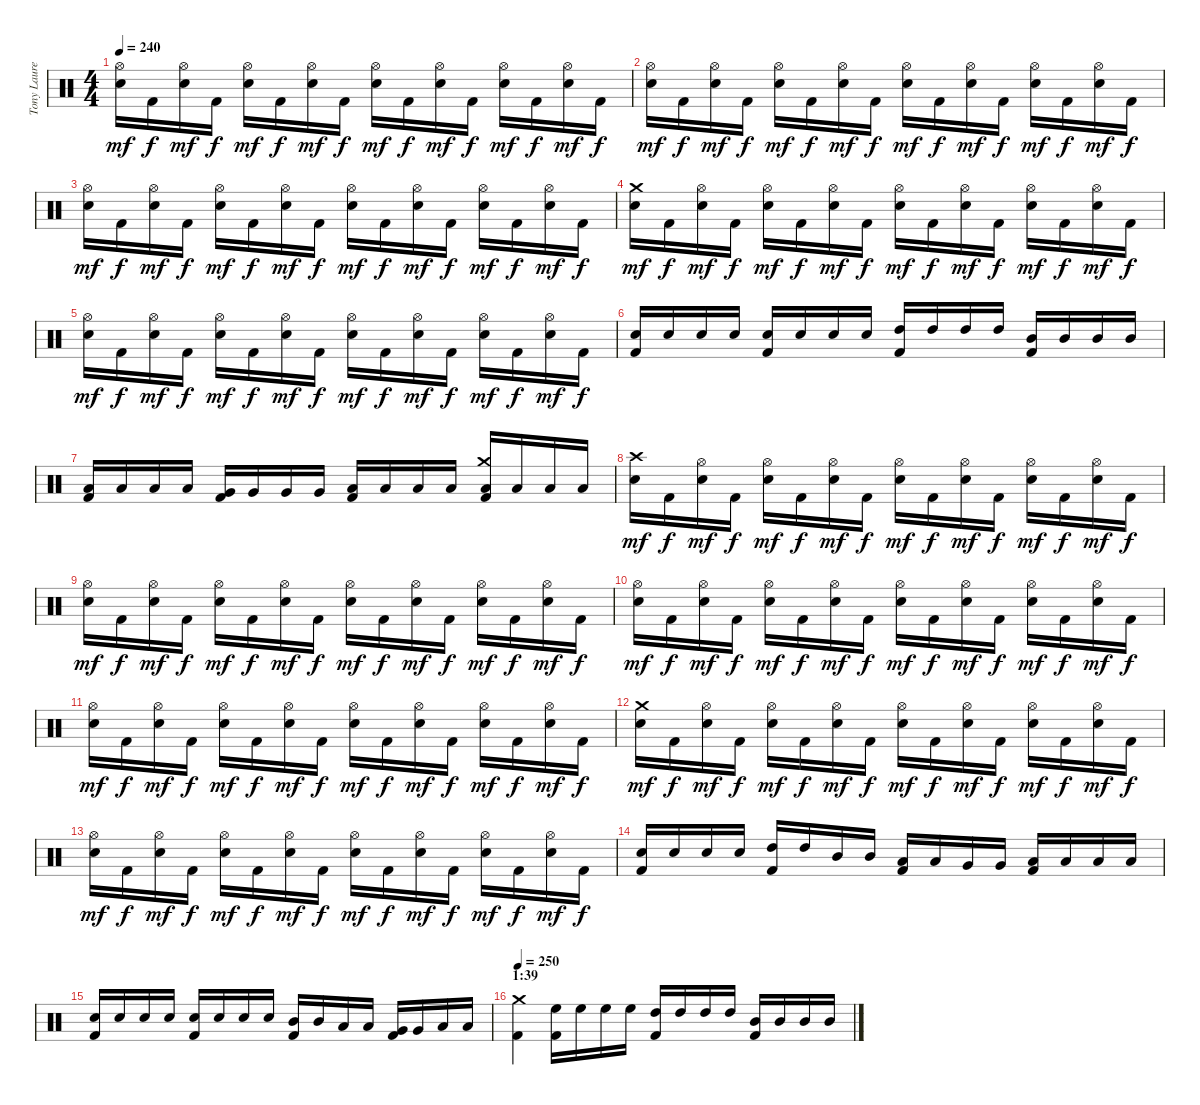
\track ("Tony Laureano" "Tony Laure") {instrument percussion}
\staff {score}
\articulation defaults
\ts (4 4)
\tempo 240
\clef neutral
\ks c
("Hi-Hat (open)" "Electric Snare (hit)").16{dy mf} "Kick (hit) 2".16{dy f} ("Hi-Hat (open)" "Electric Snare (hit)").16{dy mf} "Kick (hit) 2".16{dy f} ("Hi-Hat (open)" "Electric Snare (hit)").16{dy mf} "Kick (hit) 2".16{dy f} ("Hi-Hat (open)" "Electric Snare (hit)").16{dy mf} "Kick (hit) 2".16{dy f} ("Hi-Hat (open)" "Electric Snare (hit)").16{dy mf} "Kick (hit) 2".16{dy f} ("Hi-Hat (open)" "Electric Snare (hit)").16{dy mf} "Kick (hit) 2".16{dy f} ("Hi-Hat (open)" "Electric Snare (hit)").16{dy mf} "Kick (hit) 2".16{dy f} ("Hi-Hat (open)" "Electric Snare (hit)").16{dy mf} "Kick (hit) 2".16{dy f} |
("Hi-Hat (open)" "Electric Snare (hit)").16{dy mf} "Kick (hit) 2".16{dy f} ("Hi-Hat (open)" "Electric Snare (hit)").16{dy mf} "Kick (hit) 2".16{dy f} ("Hi-Hat (open)" "Electric Snare (hit)").16{dy mf} "Kick (hit) 2".16{dy f} ("Hi-Hat (open)" "Electric Snare (hit)").16{dy mf} "Kick (hit) 2".16{dy f} ("Hi-Hat (open)" "Electric Snare (hit)").16{dy mf} "Kick (hit) 2".16{dy f} ("Hi-Hat (open)" "Electric Snare (hit)").16{dy mf} "Kick (hit) 2".16{dy f} ("Hi-Hat (open)" "Electric Snare (hit)").16{dy mf} "Kick (hit) 2".16{dy f} ("Hi-Hat (open)" "Electric Snare (hit)").16{dy mf} "Kick (hit) 2".16{dy f} |
("Hi-Hat (open)" "Electric Snare (hit)").16{dy mf} "Kick (hit) 2".16{dy f} ("Hi-Hat (open)" "Electric Snare (hit)").16{dy mf} "Kick (hit) 2".16{dy f} ("Hi-Hat (open)" "Electric Snare (hit)").16{dy mf} "Kick (hit) 2".16{dy f} ("Hi-Hat (open)" "Electric Snare (hit)").16{dy mf} "Kick (hit) 2".16{dy f} ("Hi-Hat (open)" "Electric Snare (hit)").16{dy mf} "Kick (hit) 2".16{dy f} ("Hi-Hat (open)" "Electric Snare (hit)").16{dy mf} "Kick (hit) 2".16{dy f} ("Hi-Hat (open)" "Electric Snare (hit)").16{dy mf} "Kick (hit) 2".16{dy f} ("Hi-Hat (open)" "Electric Snare (hit)").16{dy mf} "Kick (hit) 2".16{dy f} |
("Crash medium (hit)" "Electric Snare (hit)").16{dy mf} "Kick (hit) 2".16{dy f} ("Hi-Hat (open)" "Electric Snare (hit)").16{dy mf} "Kick (hit) 2".16{dy f} ("Hi-Hat (open)" "Electric Snare (hit)").16{dy mf} "Kick (hit) 2".16{dy f} ("Hi-Hat (open)" "Electric Snare (hit)").16{dy mf} "Kick (hit) 2".16{dy f} ("Hi-Hat (open)" "Electric Snare (hit)").16{dy mf} "Kick (hit) 2".16{dy f} ("Hi-Hat (open)" "Electric Snare (hit)").16{dy mf} "Kick (hit) 2".16{dy f} ("Hi-Hat (open)" "Electric Snare (hit)").16{dy mf} "Kick (hit) 2".16{dy f} ("Hi-Hat (open)" "Electric Snare (hit)").16{dy mf} "Kick (hit) 2".16{dy f} |
("Hi-Hat (open)" "Electric Snare (hit)").16{dy mf} "Kick (hit) 2".16{dy f} ("Hi-Hat (open)" "Electric Snare (hit)").16{dy mf} "Kick (hit) 2".16{dy f} ("Hi-Hat (open)" "Electric Snare (hit)").16{dy mf} "Kick (hit) 2".16{dy f} ("Hi-Hat (open)" "Electric Snare (hit)").16{dy mf} "Kick (hit) 2".16{dy f} ("Hi-Hat (open)" "Electric Snare (hit)").16{dy mf} "Kick (hit) 2".16{dy f} ("Hi-Hat (open)" "Electric Snare (hit)").16{dy mf} "Kick (hit) 2".16{dy f} ("Hi-Hat (open)" "Electric Snare (hit)").16{dy mf} "Kick (hit) 2".16{dy f} ("Hi-Hat (open)" "Electric Snare (hit)").16{dy mf} "Kick (hit) 2".16{dy f} |
("Electric Snare (hit)" "Kick (hit) 2").16 "Electric Snare (hit)".16 "Electric Snare (hit)".16 "Electric Snare (hit)".16 ("Electric Snare (hit)" "Kick (hit) 2").16 "Electric Snare (hit)".16 "Electric Snare (hit)".16 "Electric Snare (hit)".16 ("High Tom (hit)" "Kick (hit) 2").16 "High Tom (hit)".16 "High Tom (hit)".16 "High Tom (hit)".16 ("Mid Tom (hit)" "Kick (hit) 2").16 "Mid Tom (hit)".16 "Mid Tom (hit)".16 "Mid Tom (hit)".16 |
("Low Tom (hit)" "Kick (hit) 2").16 "Low Tom (hit)".16 "Low Tom (hit)".16 "Low Tom (hit)".16 ("Very Low Tom (hit)" "Kick (hit) 2").16 "Very Low Tom (hit)".16 "Very Low Tom (hit)".16 "Very Low Tom (hit)".16 ("Low Floor Tom (hit)" "Kick (hit) 2").16 "Low Floor Tom (hit)".16 "Low Floor Tom (hit)".16 "Low Floor Tom (hit)".16 ("Crash medium (hit)" "Low Floor Tom (hit)" "Kick (hit) 2").16 "Low Floor Tom (hit)".16 "Low Floor Tom (hit)".16 "Low Floor Tom (hit)".16 |
("Crash high (hit)" "Electric Snare (hit)").16{dy mf} "Kick (hit) 2".16{dy f} ("Hi-Hat (open)" "Electric Snare (hit)").16{dy mf} "Kick (hit) 2".16{dy f} ("Hi-Hat (open)" "Electric Snare (hit)").16{dy mf} "Kick (hit) 2".16{dy f} ("Hi-Hat (open)" "Electric Snare (hit)").16{dy mf} "Kick (hit) 2".16{dy f} ("Hi-Hat (open)" "Electric Snare (hit)").16{dy mf} "Kick (hit) 2".16{dy f} ("Hi-Hat (open)" "Electric Snare (hit)").16{dy mf} "Kick (hit) 2".16{dy f} ("Hi-Hat (open)" "Electric Snare (hit)").16{dy mf} "Kick (hit) 2".16{dy f} ("Hi-Hat (open)" "Electric Snare (hit)").16{dy mf} "Kick (hit) 2".16{dy f} |
("Hi-Hat (open)" "Electric Snare (hit)").16{dy mf} "Kick (hit) 2".16{dy f} ("Hi-Hat (open)" "Electric Snare (hit)").16{dy mf} "Kick (hit) 2".16{dy f} ("Hi-Hat (open)" "Electric Snare (hit)").16{dy mf} "Kick (hit) 2".16{dy f} ("Hi-Hat (open)" "Electric Snare (hit)").16{dy mf} "Kick (hit) 2".16{dy f} ("Hi-Hat (open)" "Electric Snare (hit)").16{dy mf} "Kick (hit) 2".16{dy f} ("Hi-Hat (open)" "Electric Snare (hit)").16{dy mf} "Kick (hit) 2".16{dy f} ("Hi-Hat (open)" "Electric Snare (hit)").16{dy mf} "Kick (hit) 2".16{dy f} ("Hi-Hat (open)" "Electric Snare (hit)").16{dy mf} "Kick (hit) 2".16{dy f} |
("Hi-Hat (open)" "Electric Snare (hit)").16{dy mf} "Kick (hit) 2".16{dy f} ("Hi-Hat (open)" "Electric Snare (hit)").16{dy mf} "Kick (hit) 2".16{dy f} ("Hi-Hat (open)" "Electric Snare (hit)").16{dy mf} "Kick (hit) 2".16{dy f} ("Hi-Hat (open)" "Electric Snare (hit)").16{dy mf} "Kick (hit) 2".16{dy f} ("Hi-Hat (open)" "Electric Snare (hit)").16{dy mf} "Kick (hit) 2".16{dy f} ("Hi-Hat (open)" "Electric Snare (hit)").16{dy mf} "Kick (hit) 2".16{dy f} ("Hi-Hat (open)" "Electric Snare (hit)").16{dy mf} "Kick (hit) 2".16{dy f} ("Hi-Hat (open)" "Electric Snare (hit)").16{dy mf} "Kick (hit) 2".16{dy f} |
("Hi-Hat (open)" "Electric Snare (hit)").16{dy mf} "Kick (hit) 2".16{dy f} ("Hi-Hat (open)" "Electric Snare (hit)").16{dy mf} "Kick (hit) 2".16{dy f} ("Hi-Hat (open)" "Electric Snare (hit)").16{dy mf} "Kick (hit) 2".16{dy f} ("Hi-Hat (open)" "Electric Snare (hit)").16{dy mf} "Kick (hit) 2".16{dy f} ("Hi-Hat (open)" "Electric Snare (hit)").16{dy mf} "Kick (hit) 2".16{dy f} ("Hi-Hat (open)" "Electric Snare (hit)").16{dy mf} "Kick (hit) 2".16{dy f} ("Hi-Hat (open)" "Electric Snare (hit)").16{dy mf} "Kick (hit) 2".16{dy f} ("Hi-Hat (open)" "Electric Snare (hit)").16{dy mf} "Kick (hit) 2".16{dy f} |
("Crash medium (hit)" "Electric Snare (hit)").16{dy mf} "Kick (hit) 2".16{dy f} ("Hi-Hat (open)" "Electric Snare (hit)").16{dy mf} "Kick (hit) 2".16{dy f} ("Hi-Hat (open)" "Electric Snare (hit)").16{dy mf} "Kick (hit) 2".16{dy f} ("Hi-Hat (open)" "Electric Snare (hit)").16{dy mf} "Kick (hit) 2".16{dy f} ("Hi-Hat (open)" "Electric Snare (hit)").16{dy mf} "Kick (hit) 2".16{dy f} ("Hi-Hat (open)" "Electric Snare (hit)").16{dy mf} "Kick (hit) 2".16{dy f} ("Hi-Hat (open)" "Electric Snare (hit)").16{dy mf} "Kick (hit) 2".16{dy f} ("Hi-Hat (open)" "Electric Snare (hit)").16{dy mf} "Kick (hit) 2".16{dy f} |
("Hi-Hat (open)" "Electric Snare (hit)").16{dy mf} "Kick (hit) 2".16{dy f} ("Hi-Hat (open)" "Electric Snare (hit)").16{dy mf} "Kick (hit) 2".16{dy f} ("Hi-Hat (open)" "Electric Snare (hit)").16{dy mf} "Kick (hit) 2".16{dy f} ("Hi-Hat (open)" "Electric Snare (hit)").16{dy mf} "Kick (hit) 2".16{dy f} ("Hi-Hat (open)" "Electric Snare (hit)").16{dy mf} "Kick (hit) 2".16{dy f} ("Hi-Hat (open)" "Electric Snare (hit)").16{dy mf} "Kick (hit) 2".16{dy f} ("Hi-Hat (open)" "Electric Snare (hit)").16{dy mf} "Kick (hit) 2".16{dy f} ("Hi-Hat (open)" "Electric Snare (hit)").16{dy mf} "Kick (hit) 2".16{dy f} |
("Electric Snare (hit)" "Kick (hit) 2").16 "Electric Snare (hit)".16 "Electric Snare (hit)".16 "Electric Snare (hit)".16 ("High Tom (hit)" "Kick (hit) 2").16 "High Tom (hit)".16 "Mid Tom (hit)".16 "Mid Tom (hit)".16 ("Low Tom (hit)" "Kick (hit) 2").16 "Low Tom (hit)".16 "Very Low Tom (hit)".16 "Very Low Tom (hit)".16 ("Low Floor Tom (hit)" "Kick (hit) 2").16 "Low Floor Tom (hit)".16 "Low Floor Tom (hit)".16 "Low Floor Tom (hit)".16 |
("Electric Snare (hit)" "Kick (hit) 2").16 "Electric Snare (hit)".16 "Electric Snare (hit)".16 "Electric Snare (hit)".16 ("Electric Snare (hit)" "Kick (hit) 2").16 "Electric Snare (hit)".16 "Electric Snare (hit)".16 "Electric Snare (hit)".16 ("Mid Tom (hit)" "Kick (hit) 2").16 "Mid Tom (hit)".16 "Low Tom (hit)".16 "Low Tom (hit)".16 ("Very Low Tom (hit)" "Kick (hit) 2").16 "Very Low Tom (hit)".16 "Low Floor Tom (hit)".16 "Low Floor Tom (hit)".16 |
\section ("" "1:39")
\tempo 250
("Crash medium (hit)" "Kick (hit) 2").4 ("High Floor Tom (hit)" "Kick (hit) 2").16 "High Floor Tom (hit)".16 "High Floor Tom (hit)".16 "High Floor Tom (hit)".16 ("High Tom (hit)" "Kick (hit) 2").16 "High Tom (hit)".16 "High Tom (hit)".16 "High Tom (hit)".16 ("Mid Tom (hit)" "Kick (hit) 2").16 "Mid Tom (hit)".16 "Mid Tom (hit)".16 "Mid Tom (hit)".16
